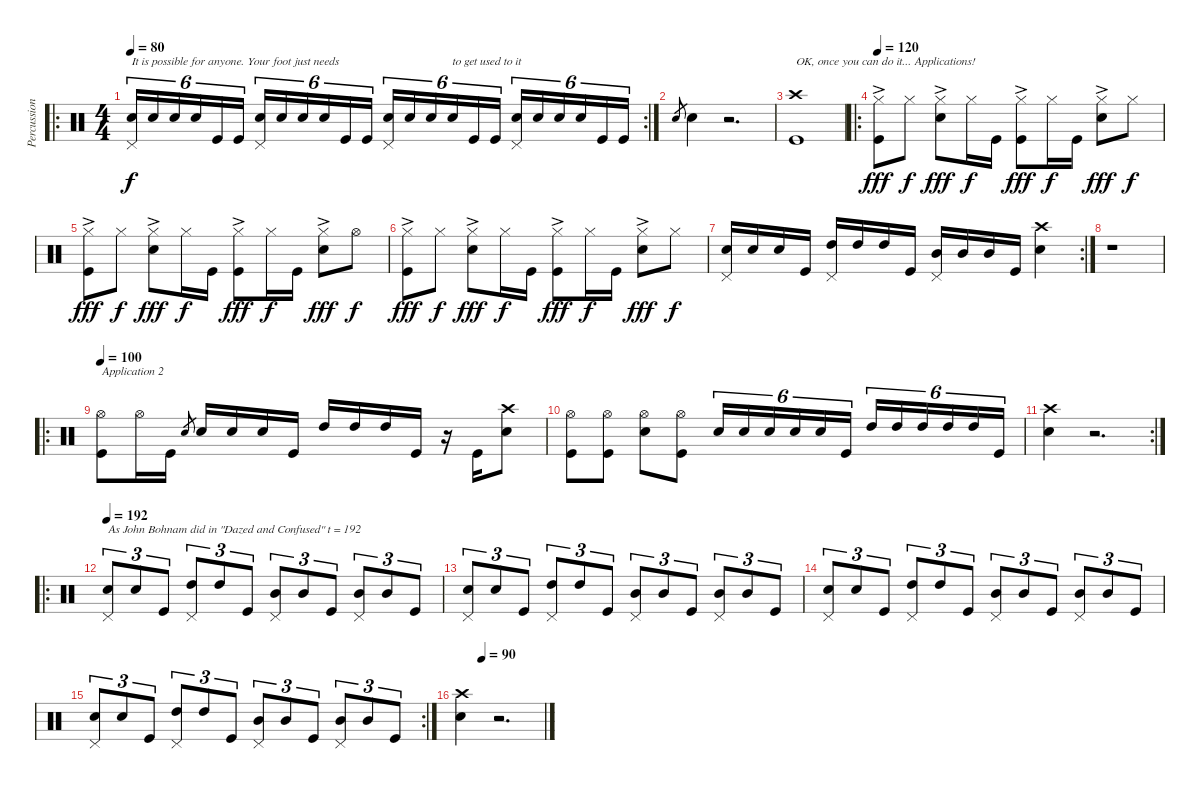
\track ("Percussions" "Percussion") {instrument percussion}
\staff {score}
\articulation defaults
\ro
\rc 2
\ts (4 4)
\tempo 80
\clef neutral
\ks c
("Snare (hit) 2" "Pedal Hi-Hat (hit)").16{tu (6 4) txt "It is possible for anyone. Your foot just needs " dy f} "Snare (hit) 2".16{tu (6 4)} "Snare (hit) 2".16{tu (6 4)} "Snare (hit) 2".16{tu (6 4)} "Kick (hit)".16{tu (6 4)} "Kick (hit)".16{tu (6 4)} ("Snare (hit) 2" "Pedal Hi-Hat (hit)").16{tu (6 4)} "Snare (hit) 2".16{tu (6 4)} "Snare (hit) 2".16{tu (6 4)} "Snare (hit) 2".16{tu (6 4)} "Kick (hit)".16{tu (6 4)} "Kick (hit)".16{tu (6 4)} ("Snare (hit) 2" "Pedal Hi-Hat (hit)").16{tu (6 4)} "Snare (hit) 2".16{tu (6 4)} "Snare (hit) 2".16{tu (6 4)} "Snare (hit) 2".16{tu (6 4) txt "to get used to it"} "Kick (hit)".16{tu (6 4)} "Kick (hit)".16{tu (6 4)} ("Snare (hit) 2" "Pedal Hi-Hat (hit)").16{tu (6 4)} "Snare (hit) 2".16{tu (6 4)} "Snare (hit) 2".16{tu (6 4)} "Snare (hit) 2".16{tu (6 4)} "Kick (hit)".16{tu (6 4)} "Kick (hit)".16{tu (6 4)} |
"Snare (hit) 2".8{gr} "Snare (hit) 2".4 r.2{d} |
("Crash high (hit)" "Kick (hit)").1{txt "OK, once you can do it... Applications!"} |
\ro
\tempo 120
("Hi-Hat (closed)"{ac} "Kick (hit)").8{dy fff} "Hi-Hat (closed)".8{dy f} ("Hi-Hat (closed)"{ac} "Electric Snare (hit)").8{dy fff} "Hi-Hat (closed)".16{dy f} "Kick (hit)".16 ("Hi-Hat (closed)"{ac} "Kick (hit)").8{dy fff} "Hi-Hat (closed)".16{dy f} "Kick (hit)".16 ("Hi-Hat (closed)"{ac} "Electric Snare (hit)").8{dy fff} "Hi-Hat (closed)".8{dy f} |
("Hi-Hat (closed)"{ac} "Kick (hit)").8{dy fff} "Hi-Hat (closed)".8{dy f} ("Hi-Hat (closed)"{ac} "Electric Snare (hit)").8{dy fff} "Hi-Hat (closed)".16{dy f} "Kick (hit)".16 ("Hi-Hat (closed)"{ac} "Kick (hit)").8{dy fff} "Hi-Hat (closed)".16{dy f} "Kick (hit)".16 ("Hi-Hat (closed)"{ac} "Electric Snare (hit)").8{dy fff} "Hi-Hat (open)".8{dy f} |
("Hi-Hat (closed)"{ac} "Kick (hit)").8{dy fff} "Hi-Hat (closed)".8{dy f} ("Hi-Hat (closed)"{ac} "Electric Snare (hit)").8{dy fff} "Hi-Hat (closed)".16{dy f} "Kick (hit)".16 ("Hi-Hat (closed)"{ac} "Kick (hit)").8{dy fff} "Hi-Hat (closed)".16{dy f} "Kick (hit)".16 ("Hi-Hat (closed)"{ac} "Electric Snare (hit)").8{dy fff} "Hi-Hat (closed)".8{dy f} |
\rc 2
("Electric Snare (hit)" "Pedal Hi-Hat (hit)").16 "Electric Snare (hit)".16 "Electric Snare (hit)".16 "Kick (hit)".16 ("High Tom (hit)" "Pedal Hi-Hat (hit)").16 "High Tom (hit)".16 "High Tom (hit)".16 "Kick (hit)".16 ("Mid Tom (hit)" "Pedal Hi-Hat (hit)").16 "Mid Tom (hit)".16 "Mid Tom (hit)".16 "Kick (hit)".16 ("Crash high (hit)" "Electric Snare (hit)").4 |
r.1 |
\ro
\tempo 100
("Hi-Hat (open)" "Kick (hit)").8{txt "Application 2"} "Hi-Hat (open)".16 "Kick (hit)".16 "Electric Snare (hit)".8{gr} "Electric Snare (hit)".16 "Electric Snare (hit)".16 "Electric Snare (hit)".16 "Kick (hit)".16 "High Tom (hit)".16 "High Tom (hit)".16 "High Tom (hit)".16 "Kick (hit)".16 r.16 "Kick (hit)".16 ("Crash high (hit)" "Electric Snare (hit)").8 |
("Hi-Hat (open)" "Kick (hit)").8 ("Hi-Hat (open)" "Kick (hit)").8 ("Hi-Hat (open)" "Electric Snare (hit)").8 ("Hi-Hat (open)" "Kick (hit)").8 "Electric Snare (hit)".16{tu (6 4)} "Electric Snare (hit)".16{tu (6 4)} "Electric Snare (hit)".16{tu (6 4)} "Electric Snare (hit)".16{tu (6 4)} "Electric Snare (hit)".16{tu (6 4)} "Kick (hit)".16{tu (6 4)} "High Tom (hit)".16{tu (6 4)} "High Tom (hit)".16{tu (6 4)} "High Tom (hit)".16{tu (6 4)} "High Tom (hit)".16{tu (6 4)} "High Tom (hit)".16{tu (6 4)} "Kick (hit)".16{tu (6 4)} |
\rc 2
("Crash high (hit)" "Electric Snare (hit)").4 r.2{d} |
\ro
\tempo 192
("Electric Snare (hit)" "Pedal Hi-Hat (hit)").8{tu (3 2) txt "As John Bohnam did in \"Dazed and Confused\" t = 192"} "Electric Snare (hit)".8{tu (3 2)} "Kick (hit)".8{tu (3 2)} ("High Tom (hit)" "Pedal Hi-Hat (hit)").8{tu (3 2)} "High Tom (hit)".8{tu (3 2)} "Kick (hit)".8{tu (3 2)} ("Mid Tom (hit)" "Pedal Hi-Hat (hit)").8{tu (3 2)} "Mid Tom (hit)".8{tu (3 2)} "Kick (hit)".8{tu (3 2)} ("Mid Tom (hit)" "Pedal Hi-Hat (hit)").8{tu (3 2)} "Mid Tom (hit)".8{tu (3 2)} "Kick (hit)".8{tu (3 2)} |
("Electric Snare (hit)" "Pedal Hi-Hat (hit)").8{tu (3 2)} "Electric Snare (hit)".8{tu (3 2)} "Kick (hit)".8{tu (3 2)} ("High Tom (hit)" "Pedal Hi-Hat (hit)").8{tu (3 2)} "High Tom (hit)".8{tu (3 2)} "Kick (hit)".8{tu (3 2)} ("Mid Tom (hit)" "Pedal Hi-Hat (hit)").8{tu (3 2)} "Mid Tom (hit)".8{tu (3 2)} "Kick (hit)".8{tu (3 2)} ("Mid Tom (hit)" "Pedal Hi-Hat (hit)").8{tu (3 2)} "Mid Tom (hit)".8{tu (3 2)} "Kick (hit)".8{tu (3 2)} |
("Electric Snare (hit)" "Pedal Hi-Hat (hit)").8{tu (3 2)} "Electric Snare (hit)".8{tu (3 2)} "Kick (hit)".8{tu (3 2)} ("High Tom (hit)" "Pedal Hi-Hat (hit)").8{tu (3 2)} "High Tom (hit)".8{tu (3 2)} "Kick (hit)".8{tu (3 2)} ("Mid Tom (hit)" "Pedal Hi-Hat (hit)").8{tu (3 2)} "Mid Tom (hit)".8{tu (3 2)} "Kick (hit)".8{tu (3 2)} ("Mid Tom (hit)" "Pedal Hi-Hat (hit)").8{tu (3 2)} "Mid Tom (hit)".8{tu (3 2)} "Kick (hit)".8{tu (3 2)} |
\rc 2
("Electric Snare (hit)" "Pedal Hi-Hat (hit)").8{tu (3 2)} "Electric Snare (hit)".8{tu (3 2)} "Kick (hit)".8{tu (3 2)} ("High Tom (hit)" "Pedal Hi-Hat (hit)").8{tu (3 2)} "High Tom (hit)".8{tu (3 2)} "Kick (hit)".8{tu (3 2)} ("Mid Tom (hit)" "Pedal Hi-Hat (hit)").8{tu (3 2)} "Mid Tom (hit)".8{tu (3 2)} "Kick (hit)".8{tu (3 2)} ("Mid Tom (hit)" "Pedal Hi-Hat (hit)").8{tu (3 2)} "Mid Tom (hit)".8{tu (3 2)} "Kick (hit)".8{tu (3 2)} |
\tempo (90 0.25)
("Crash high (hit)" "Electric Snare (hit)").4 r.2{d}
